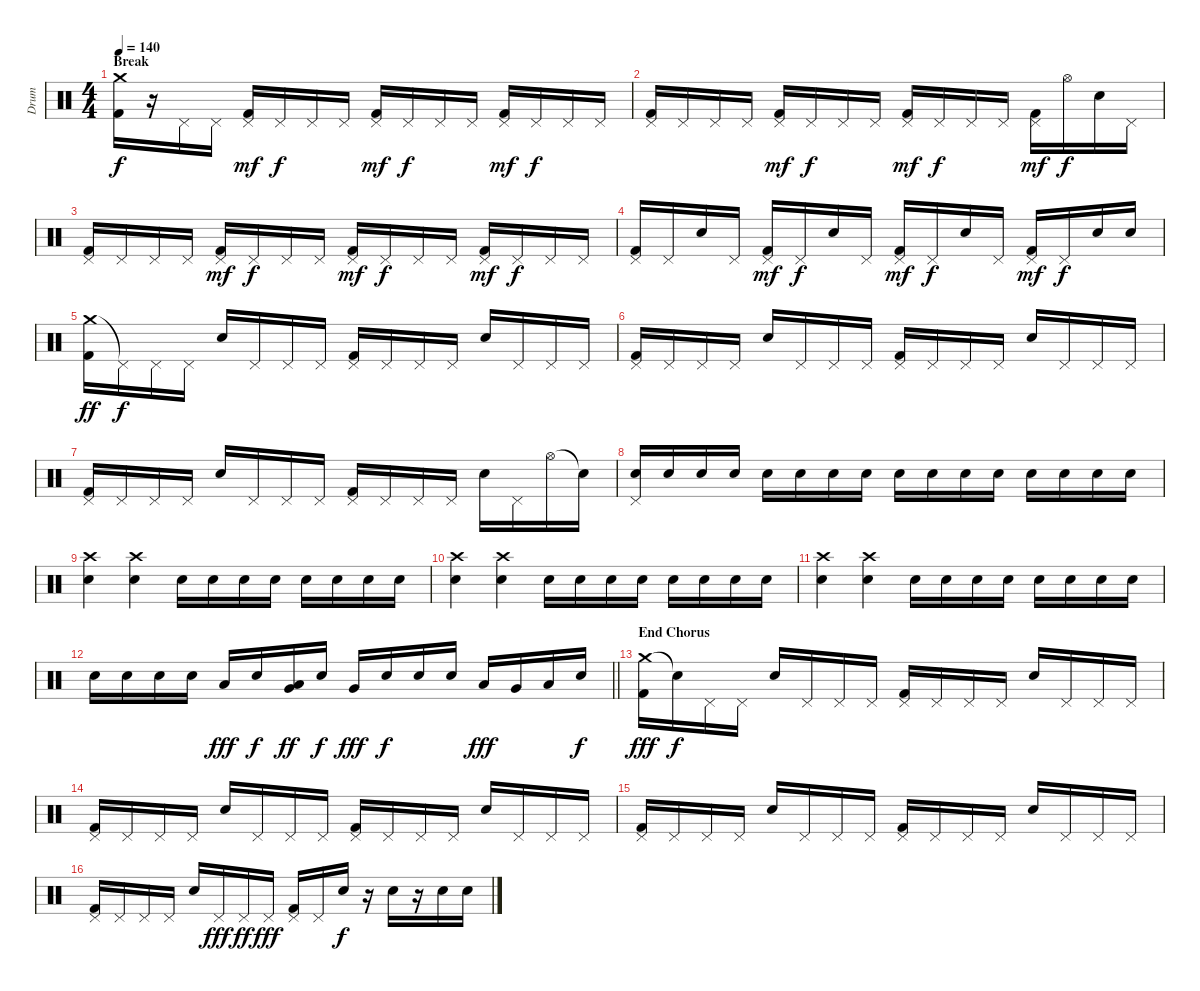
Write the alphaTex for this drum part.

\track ("Drum" "Drum") {instrument percussion}
\staff {score}
\articulation defaults
\ts (4 4)
\section ("" "Break")
\tempo 140
\clef neutral
\ks c
("Crash medium (hit)" "Kick (hit) 2").16{dy f} r.16 "Pedal Hi-Hat (hit)".16 "Pedal Hi-Hat (hit)".16 ("Pedal Hi-Hat (hit)" "Kick (hit) 2").16{dy mf} "Pedal Hi-Hat (hit)".16{dy f} "Pedal Hi-Hat (hit)".16 "Pedal Hi-Hat (hit)".16 ("Pedal Hi-Hat (hit)" "Kick (hit) 2").16{dy mf} "Pedal Hi-Hat (hit)".16{dy f} "Pedal Hi-Hat (hit)".16 "Pedal Hi-Hat (hit)".16 ("Pedal Hi-Hat (hit)" "Kick (hit) 2").16{dy mf} "Pedal Hi-Hat (hit)".16{dy f} "Pedal Hi-Hat (hit)".16 "Pedal Hi-Hat (hit)".16 |
("Pedal Hi-Hat (hit)" "Kick (hit) 2").16 "Pedal Hi-Hat (hit)".16 "Pedal Hi-Hat (hit)".16 "Pedal Hi-Hat (hit)".16 ("Pedal Hi-Hat (hit)" "Kick (hit) 2").16{dy mf} "Pedal Hi-Hat (hit)".16{dy f} "Pedal Hi-Hat (hit)".16 "Pedal Hi-Hat (hit)".16 ("Pedal Hi-Hat (hit)" "Kick (hit) 2").16{dy mf} "Pedal Hi-Hat (hit)".16{dy f} "Pedal Hi-Hat (hit)".16 "Pedal Hi-Hat (hit)".16 ("Pedal Hi-Hat (hit)" "Kick (hit) 2").16{dy mf} "Hi-Hat (open)".16{dy f} "Snare (hit) 2".16 "Pedal Hi-Hat (hit)".16 |
("Pedal Hi-Hat (hit)" "Kick (hit) 2").16 "Pedal Hi-Hat (hit)".16 "Pedal Hi-Hat (hit)".16 "Pedal Hi-Hat (hit)".16 ("Pedal Hi-Hat (hit)" "Kick (hit) 2").16{dy mf} "Pedal Hi-Hat (hit)".16{dy f} "Pedal Hi-Hat (hit)".16 "Pedal Hi-Hat (hit)".16 ("Pedal Hi-Hat (hit)" "Kick (hit) 2").16{dy mf} "Pedal Hi-Hat (hit)".16{dy f} "Pedal Hi-Hat (hit)".16 "Pedal Hi-Hat (hit)".16 ("Pedal Hi-Hat (hit)" "Kick (hit) 2").16{dy mf} "Pedal Hi-Hat (hit)".16{dy f} "Pedal Hi-Hat (hit)".16 "Pedal Hi-Hat (hit)".16 |
("Pedal Hi-Hat (hit)" "Kick (hit) 2").16 "Pedal Hi-Hat (hit)".16 "Snare (hit) 2".16 "Pedal Hi-Hat (hit)".16 ("Pedal Hi-Hat (hit)" "Kick (hit) 2").16{dy mf} "Pedal Hi-Hat (hit)".16{dy f} "Snare (hit) 2".16 "Pedal Hi-Hat (hit)".16 ("Pedal Hi-Hat (hit)" "Kick (hit) 2").16{dy mf} "Pedal Hi-Hat (hit)".16{dy f} "Snare (hit) 2".16 "Pedal Hi-Hat (hit)".16 ("Pedal Hi-Hat (hit)" "Kick (hit) 2").16{dy mf} "Pedal Hi-Hat (hit)".16{dy f} "Snare (hit) 2".16 "Snare (hit) 2".16 |
("Crash medium (hit)" "Kick (hit) 2").16{dy ff} "Pedal Hi-Hat (hit)"{t}.16{dy f} "Pedal Hi-Hat (hit)".16 "Pedal Hi-Hat (hit)".16 "Snare (hit) 2".16 "Pedal Hi-Hat (hit)".16 "Pedal Hi-Hat (hit)".16 "Pedal Hi-Hat (hit)".16 ("Pedal Hi-Hat (hit)" "Kick (hit) 2").16 "Pedal Hi-Hat (hit)".16 "Pedal Hi-Hat (hit)".16 "Pedal Hi-Hat (hit)".16 "Snare (hit) 2".16 "Pedal Hi-Hat (hit)".16 "Pedal Hi-Hat (hit)".16 "Pedal Hi-Hat (hit)".16 |
("Pedal Hi-Hat (hit)" "Kick (hit) 2").16 "Pedal Hi-Hat (hit)".16 "Pedal Hi-Hat (hit)".16 "Pedal Hi-Hat (hit)".16 "Snare (hit) 2".16 "Pedal Hi-Hat (hit)".16 "Pedal Hi-Hat (hit)".16 "Pedal Hi-Hat (hit)".16 ("Pedal Hi-Hat (hit)" "Kick (hit) 2").16 "Pedal Hi-Hat (hit)".16 "Pedal Hi-Hat (hit)".16 "Pedal Hi-Hat (hit)".16 "Snare (hit) 2".16 "Pedal Hi-Hat (hit)".16 "Pedal Hi-Hat (hit)".16 "Pedal Hi-Hat (hit)".16 |
("Pedal Hi-Hat (hit)" "Kick (hit) 2").16 "Pedal Hi-Hat (hit)".16 "Pedal Hi-Hat (hit)".16 "Pedal Hi-Hat (hit)".16 "Snare (hit) 2".16 "Pedal Hi-Hat (hit)".16 "Pedal Hi-Hat (hit)".16 "Pedal Hi-Hat (hit)".16 ("Pedal Hi-Hat (hit)" "Kick (hit) 2").16 "Pedal Hi-Hat (hit)".16 "Pedal Hi-Hat (hit)".16 "Pedal Hi-Hat (hit)".16 "Snare (hit) 2".16 "Pedal Hi-Hat (hit)".16 "Hi-Hat (open)".16 "Snare (hit)"{t}.16 |
("Pedal Hi-Hat (hit)" "Snare (hit) 2").16 "Snare (hit) 2".16 "Snare (hit) 2".16 "Snare (hit) 2".16 "Snare (hit) 2".16 "Snare (hit) 2".16 "Snare (hit) 2".16 "Snare (hit) 2".16 "Snare (hit) 2".16 "Snare (hit) 2".16 "Snare (hit) 2".16 "Snare (hit) 2".16 "Snare (hit) 2".16 "Snare (hit) 2".16 "Snare (hit) 2".16 "Snare (hit) 2".16 |
("Crash high (hit)" "Snare (hit) 2").4 ("Crash high (hit)" "Snare (hit) 2").4 "Snare (hit) 2".16 "Snare (hit) 2".16 "Snare (hit) 2".16 "Snare (hit) 2".16 "Snare (hit) 2".16 "Snare (hit) 2".16 "Snare (hit) 2".16 "Snare (hit) 2".16 |
("Crash high (hit)" "Snare (hit) 2").4 ("Crash high (hit)" "Snare (hit) 2").4 "Snare (hit) 2".16 "Snare (hit) 2".16 "Snare (hit) 2".16 "Snare (hit) 2".16 "Snare (hit) 2".16 "Snare (hit) 2".16 "Snare (hit) 2".16 "Snare (hit) 2".16 |
("Crash high (hit)" "Snare (hit) 2").4 ("Crash high (hit)" "Snare (hit) 2").4 "Snare (hit) 2".16 "Snare (hit) 2".16 "Snare (hit) 2".16 "Snare (hit) 2".16 "Snare (hit) 2".16 "Snare (hit) 2".16 "Snare (hit) 2".16 "Snare (hit) 2".16 |
\barLineRight lightlight "Snare (hit) 2".16 "Snare (hit) 2".16 "Snare (hit) 2".16 "Snare (hit) 2".16 "Low Tom (hit)".16{dy fff} "Snare (hit) 2".16{dy f}
("Low Tom (hit)" "Very Low Tom (hit)").16{dy ff} "Snare (hit) 2".16{dy f} "Very Low Tom (hit)".16{dy fff} "Snare (hit) 2".16{dy f} "Snare (hit) 2".16 "Snare (hit) 2".16 "Low Tom (hit)".16{dy fff} "Very Low Tom (hit)".16 "Low Tom (hit)".16 "Snare (hit) 2".16{dy f} |
\section ("" "End Chorus")
("Crash medium (hit)" "Kick (hit) 2").16{dy fff} "Snare (hit)"{t}.16{dy f} "Pedal Hi-Hat (hit)".16 "Pedal Hi-Hat (hit)".16 "Snare (hit) 2".16 "Pedal Hi-Hat (hit)".16 "Pedal Hi-Hat (hit)".16 "Pedal Hi-Hat (hit)".16 ("Pedal Hi-Hat (hit)" "Kick (hit) 2").16 "Pedal Hi-Hat (hit)".16 "Pedal Hi-Hat (hit)".16 "Pedal Hi-Hat (hit)".16 "Snare (hit) 2".16 "Pedal Hi-Hat (hit)".16 "Pedal Hi-Hat (hit)".16 "Pedal Hi-Hat (hit)".16 |
("Pedal Hi-Hat (hit)" "Kick (hit) 2").16 "Pedal Hi-Hat (hit)".16 "Pedal Hi-Hat (hit)".16 "Pedal Hi-Hat (hit)".16 "Snare (hit) 2".16 "Pedal Hi-Hat (hit)".16 "Pedal Hi-Hat (hit)".16 "Pedal Hi-Hat (hit)".16 ("Pedal Hi-Hat (hit)" "Kick (hit) 2").16 "Pedal Hi-Hat (hit)".16 "Pedal Hi-Hat (hit)".16 "Pedal Hi-Hat (hit)".16 "Snare (hit) 2".16 "Pedal Hi-Hat (hit)".16 "Pedal Hi-Hat (hit)".16 "Pedal Hi-Hat (hit)".16 |
("Pedal Hi-Hat (hit)" "Kick (hit) 2").16 "Pedal Hi-Hat (hit)".16 "Pedal Hi-Hat (hit)".16 "Pedal Hi-Hat (hit)".16 "Snare (hit) 2".16 "Pedal Hi-Hat (hit)".16 "Pedal Hi-Hat (hit)".16 "Pedal Hi-Hat (hit)".16 ("Pedal Hi-Hat (hit)" "Kick (hit) 2").16 "Pedal Hi-Hat (hit)".16 "Pedal Hi-Hat (hit)".16 "Pedal Hi-Hat (hit)".16 "Snare (hit) 2".16 "Pedal Hi-Hat (hit)".16 "Pedal Hi-Hat (hit)".16 "Pedal Hi-Hat (hit)".16 |
("Pedal Hi-Hat (hit)" "Kick (hit) 2").16 "Pedal Hi-Hat (hit)".16 "Pedal Hi-Hat (hit)".16 "Pedal Hi-Hat (hit)".16 "Snare (hit) 2".16 "Pedal Hi-Hat (hit)".16{dy fff} "Pedal Hi-Hat (hit)".16{dy ff} "Pedal Hi-Hat (hit)".16{dy fff} ("Pedal Hi-Hat (hit)" "Kick (hit) 2").16 "Pedal Hi-Hat (hit)".16 "Snare (hit) 2".16{dy f} r.16 "Snare (hit) 2".16 r.16 "Snare (hit) 2".16 "Snare (hit) 2".16
